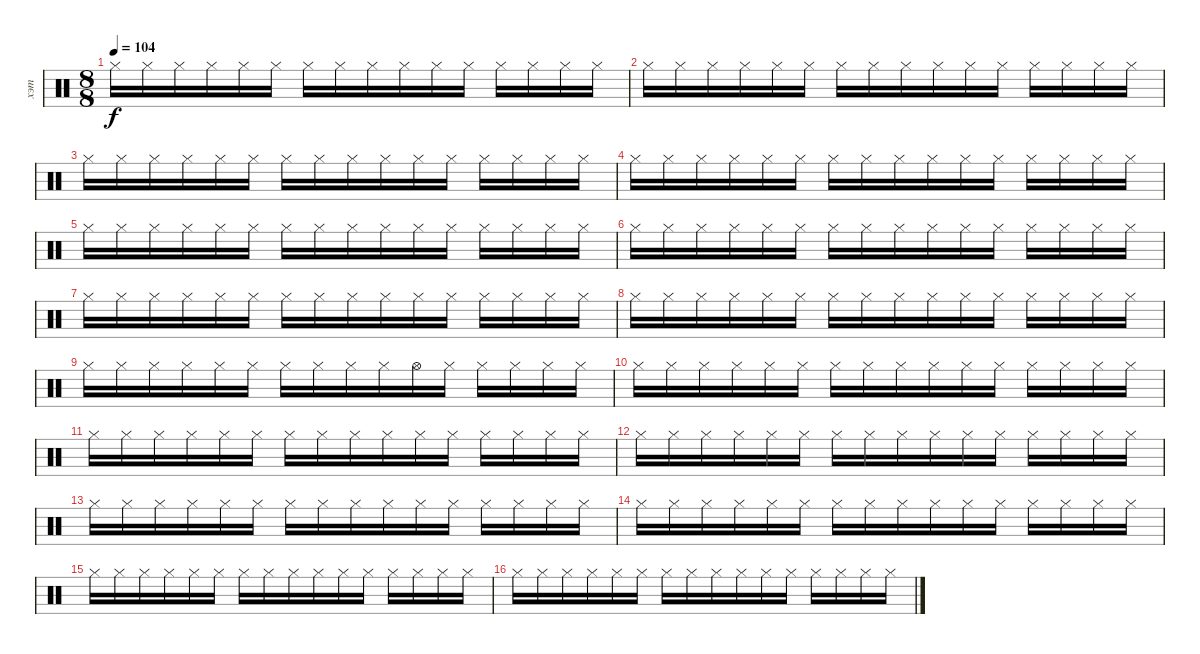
\track ("хэт" "хэт") {instrument percussion}
\staff {score}
\articulation defaults
\ts (8 8)
\tempo 104
\clef neutral
\ks c "Hi-Hat (closed)".16{dy f} "Hi-Hat (closed)".16 "Hi-Hat (closed)".16 "Hi-Hat (closed)".16 "Hi-Hat (closed)".16 "Hi-Hat (closed)".16 "Hi-Hat (closed)".16 "Hi-Hat (closed)".16 "Hi-Hat (closed)".16 "Hi-Hat (closed)".16 "Hi-Hat (closed)".16 "Hi-Hat (closed)".16 "Hi-Hat (closed)".16 "Hi-Hat (closed)".16 "Hi-Hat (closed)".16 "Hi-Hat (closed)".16
|
"Hi-Hat (closed)".16 "Hi-Hat (closed)".16 "Hi-Hat (closed)".16 "Hi-Hat (closed)".16 "Hi-Hat (closed)".16 "Hi-Hat (closed)".16 "Hi-Hat (closed)".16 "Hi-Hat (closed)".16 "Hi-Hat (closed)".16 "Hi-Hat (closed)".16 "Hi-Hat (closed)".16 "Hi-Hat (closed)".16 "Hi-Hat (closed)".16 "Hi-Hat (closed)".16 "Hi-Hat (closed)".16 "Hi-Hat (closed)".16 |
"Hi-Hat (closed)".16 "Hi-Hat (closed)".16 "Hi-Hat (closed)".16 "Hi-Hat (closed)".16 "Hi-Hat (closed)".16 "Hi-Hat (closed)".16 "Hi-Hat (closed)".16 "Hi-Hat (closed)".16 "Hi-Hat (closed)".16 "Hi-Hat (closed)".16 "Hi-Hat (closed)".16 "Hi-Hat (closed)".16 "Hi-Hat (closed)".16 "Hi-Hat (closed)".16 "Hi-Hat (closed)".16 "Hi-Hat (closed)".16 |
"Hi-Hat (closed)".16 "Hi-Hat (closed)".16 "Hi-Hat (closed)".16 "Hi-Hat (closed)".16 "Hi-Hat (closed)".16 "Hi-Hat (closed)".16 "Hi-Hat (closed)".16 "Hi-Hat (closed)".16 "Hi-Hat (closed)".16 "Hi-Hat (closed)".16 "Hi-Hat (closed)".16 "Hi-Hat (closed)".16 "Hi-Hat (closed)".16 "Hi-Hat (closed)".16 "Hi-Hat (closed)".16 "Hi-Hat (closed)".16 |
"Hi-Hat (closed)".16 "Hi-Hat (closed)".16 "Hi-Hat (closed)".16 "Hi-Hat (closed)".16 "Hi-Hat (closed)".16 "Hi-Hat (closed)".16 "Hi-Hat (closed)".16 "Hi-Hat (closed)".16 "Hi-Hat (closed)".16 "Hi-Hat (closed)".16 "Hi-Hat (closed)".16 "Hi-Hat (closed)".16 "Hi-Hat (closed)".16 "Hi-Hat (closed)".16 "Hi-Hat (closed)".16 "Hi-Hat (closed)".16 |
"Hi-Hat (closed)".16 "Hi-Hat (closed)".16 "Hi-Hat (closed)".16 "Hi-Hat (closed)".16 "Hi-Hat (closed)".16 "Hi-Hat (closed)".16 "Hi-Hat (closed)".16 "Hi-Hat (closed)".16 "Hi-Hat (closed)".16 "Hi-Hat (closed)".16 "Hi-Hat (closed)".16 "Hi-Hat (closed)".16 "Hi-Hat (closed)".16 "Hi-Hat (closed)".16 "Hi-Hat (closed)".16 "Hi-Hat (closed)".16 |
"Hi-Hat (closed)".16 "Hi-Hat (closed)".16 "Hi-Hat (closed)".16 "Hi-Hat (closed)".16 "Hi-Hat (closed)".16 "Hi-Hat (closed)".16 "Hi-Hat (closed)".16 "Hi-Hat (closed)".16 "Hi-Hat (closed)".16 "Hi-Hat (closed)".16 "Hi-Hat (closed)".16 "Hi-Hat (closed)".16 "Hi-Hat (closed)".16 "Hi-Hat (closed)".16 "Hi-Hat (closed)".16 "Hi-Hat (closed)".16 |
"Hi-Hat (closed)".16 "Hi-Hat (closed)".16 "Hi-Hat (closed)".16 "Hi-Hat (closed)".16 "Hi-Hat (closed)".16 "Hi-Hat (closed)".16 "Hi-Hat (closed)".16 "Hi-Hat (closed)".16 "Hi-Hat (closed)".16 "Hi-Hat (closed)".16 "Hi-Hat (closed)".16 "Hi-Hat (closed)".16 "Hi-Hat (closed)".16 "Hi-Hat (closed)".16 "Hi-Hat (closed)".16 "Hi-Hat (closed)".16 |
"Hi-Hat (closed)".16 "Hi-Hat (closed)".16 "Hi-Hat (closed)".16 "Hi-Hat (closed)".16 "Hi-Hat (closed)".16 "Hi-Hat (closed)".16 "Hi-Hat (closed)".16 "Hi-Hat (closed)".16 "Hi-Hat (closed)".16 "Hi-Hat (closed)".16 "Hi-Hat (open)".16 "Hi-Hat (closed)".16 "Hi-Hat (closed)".16 "Hi-Hat (closed)".16 "Hi-Hat (closed)".16 "Hi-Hat (closed)".16 |
"Hi-Hat (closed)".16 "Hi-Hat (closed)".16 "Hi-Hat (closed)".16 "Hi-Hat (closed)".16 "Hi-Hat (closed)".16 "Hi-Hat (closed)".16 "Hi-Hat (closed)".16 "Hi-Hat (closed)".16 "Hi-Hat (closed)".16 "Hi-Hat (closed)".16 "Hi-Hat (closed)".16 "Hi-Hat (closed)".16 "Hi-Hat (closed)".16 "Hi-Hat (closed)".16 "Hi-Hat (closed)".16 "Hi-Hat (closed)".16 |
"Hi-Hat (closed)".16 "Hi-Hat (closed)".16 "Hi-Hat (closed)".16 "Hi-Hat (closed)".16 "Hi-Hat (closed)".16 "Hi-Hat (closed)".16 "Hi-Hat (closed)".16 "Hi-Hat (closed)".16 "Hi-Hat (closed)".16 "Hi-Hat (closed)".16 "Hi-Hat (closed)".16 "Hi-Hat (closed)".16 "Hi-Hat (closed)".16 "Hi-Hat (closed)".16 "Hi-Hat (closed)".16 "Hi-Hat (closed)".16 |
"Hi-Hat (closed)".16 "Hi-Hat (closed)".16 "Hi-Hat (closed)".16 "Hi-Hat (closed)".16 "Hi-Hat (closed)".16 "Hi-Hat (closed)".16 "Hi-Hat (closed)".16 "Hi-Hat (closed)".16 "Hi-Hat (closed)".16 "Hi-Hat (closed)".16 "Hi-Hat (closed)".16 "Hi-Hat (closed)".16 "Hi-Hat (closed)".16 "Hi-Hat (closed)".16 "Hi-Hat (closed)".16 "Hi-Hat (closed)".16 |
"Hi-Hat (closed)".16 "Hi-Hat (closed)".16 "Hi-Hat (closed)".16 "Hi-Hat (closed)".16 "Hi-Hat (closed)".16 "Hi-Hat (closed)".16 "Hi-Hat (closed)".16 "Hi-Hat (closed)".16 "Hi-Hat (closed)".16 "Hi-Hat (closed)".16 "Hi-Hat (closed)".16 "Hi-Hat (closed)".16 "Hi-Hat (closed)".16 "Hi-Hat (closed)".16 "Hi-Hat (closed)".16 "Hi-Hat (closed)".16 |
"Hi-Hat (closed)".16 "Hi-Hat (closed)".16 "Hi-Hat (closed)".16 "Hi-Hat (closed)".16 "Hi-Hat (closed)".16 "Hi-Hat (closed)".16 "Hi-Hat (closed)".16 "Hi-Hat (closed)".16 "Hi-Hat (closed)".16 "Hi-Hat (closed)".16 "Hi-Hat (closed)".16 "Hi-Hat (closed)".16 "Hi-Hat (closed)".16 "Hi-Hat (closed)".16 "Hi-Hat (closed)".16 "Hi-Hat (closed)".16 |
"Hi-Hat (closed)".16 "Hi-Hat (closed)".16 "Hi-Hat (closed)".16 "Hi-Hat (closed)".16 "Hi-Hat (closed)".16 "Hi-Hat (closed)".16 "Hi-Hat (closed)".16 "Hi-Hat (closed)".16 "Hi-Hat (closed)".16 "Hi-Hat (closed)".16 "Hi-Hat (closed)".16 "Hi-Hat (closed)".16 "Hi-Hat (closed)".16 "Hi-Hat (closed)".16 "Hi-Hat (closed)".16 "Hi-Hat (closed)".16 |
"Hi-Hat (closed)".16 "Hi-Hat (closed)".16 "Hi-Hat (closed)".16 "Hi-Hat (closed)".16 "Hi-Hat (closed)".16 "Hi-Hat (closed)".16 "Hi-Hat (closed)".16 "Hi-Hat (closed)".16 "Hi-Hat (closed)".16 "Hi-Hat (closed)".16 "Hi-Hat (closed)".16 "Hi-Hat (closed)".16 "Hi-Hat (closed)".16 "Hi-Hat (closed)".16 "Hi-Hat (closed)".16 "Hi-Hat (closed)".16
